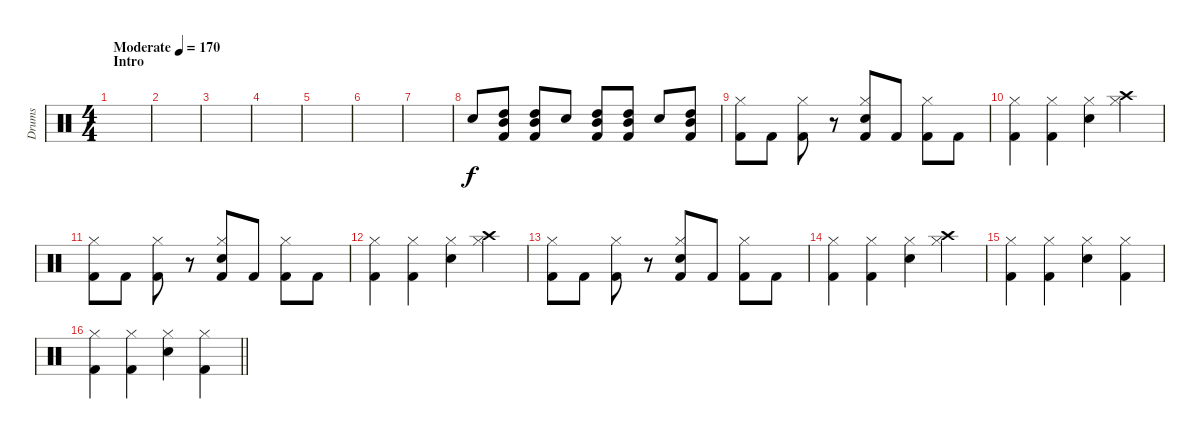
\track ("Drums" "Drums") {instrument percussion}
\staff {score}
\articulation defaults
\ts (4 4)
\section ("" "Intro")
\tempo (170 "Moderate")
\clef neutral
\ks c
|
|
|
|
|
|
|
"Snare (hit) 2".8 ("Kick (hit) 2" "High Tom (hit)" "Mid Tom (hit)").8 ("Kick (hit) 2" "High Tom (hit)" "Mid Tom (hit)").8 "Snare (hit) 2".8 ("Kick (hit) 2" "High Tom (hit)" "Mid Tom (hit)").8 ("Kick (hit) 2" "High Tom (hit)" "Mid Tom (hit)").8 "Snare (hit) 2".8 ("Kick (hit) 2" "High Tom (hit)" "Mid Tom (hit)").8 |
("Hi-Hat (closed)" "Kick (hit) 2").8 "Kick (hit) 2".8 ("Hi-Hat (closed)" "Kick (hit) 2").8 r.8 ("Hi-Hat (closed)" "Electric Snare (hit)" "Kick (hit) 2").8 "Kick (hit) 2".8 ("Hi-Hat (closed)" "Kick (hit) 2").8 "Kick (hit) 2".8 |
("Hi-Hat (closed)" "Kick (hit) 2").4 ("Hi-Hat (closed)" "Kick (hit) 2").4 ("Hi-Hat (closed)" "Electric Snare (hit)").4 ("Hi-Hat (closed)" "Crash high (hit)").4 |
("Hi-Hat (closed)" "Kick (hit) 2").8 "Kick (hit) 2".8 ("Hi-Hat (closed)" "Kick (hit) 2").8 r.8 ("Hi-Hat (closed)" "Electric Snare (hit)" "Kick (hit) 2").8 "Kick (hit) 2".8 ("Hi-Hat (closed)" "Kick (hit) 2").8 "Kick (hit) 2".8 |
("Hi-Hat (closed)" "Kick (hit) 2").4 ("Hi-Hat (closed)" "Kick (hit) 2").4 ("Hi-Hat (closed)" "Electric Snare (hit)").4 ("Hi-Hat (closed)" "Crash high (hit)").4 |
("Hi-Hat (closed)" "Kick (hit) 2").8 "Kick (hit) 2".8 ("Hi-Hat (closed)" "Kick (hit) 2").8 r.8 ("Hi-Hat (closed)" "Electric Snare (hit)" "Kick (hit) 2").8 "Kick (hit) 2".8 ("Hi-Hat (closed)" "Kick (hit) 2").8 "Kick (hit) 2".8 |
("Hi-Hat (closed)" "Kick (hit) 2").4 ("Hi-Hat (closed)" "Kick (hit) 2").4 ("Hi-Hat (closed)" "Electric Snare (hit)").4 ("Hi-Hat (closed)" "Crash high (hit)").4 |
("Hi-Hat (closed)" "Kick (hit) 2").4 ("Hi-Hat (closed)" "Kick (hit) 2").4 ("Hi-Hat (closed)" "Electric Snare (hit)").4 ("Hi-Hat (closed)" "Kick (hit) 2").4 |
\barLineRight lightlight
("Hi-Hat (closed)" "Kick (hit) 2").4 ("Hi-Hat (closed)" "Kick (hit) 2").4 ("Hi-Hat (closed)" "Electric Snare (hit)").4 ("Hi-Hat (closed)" "Kick (hit) 2").4
